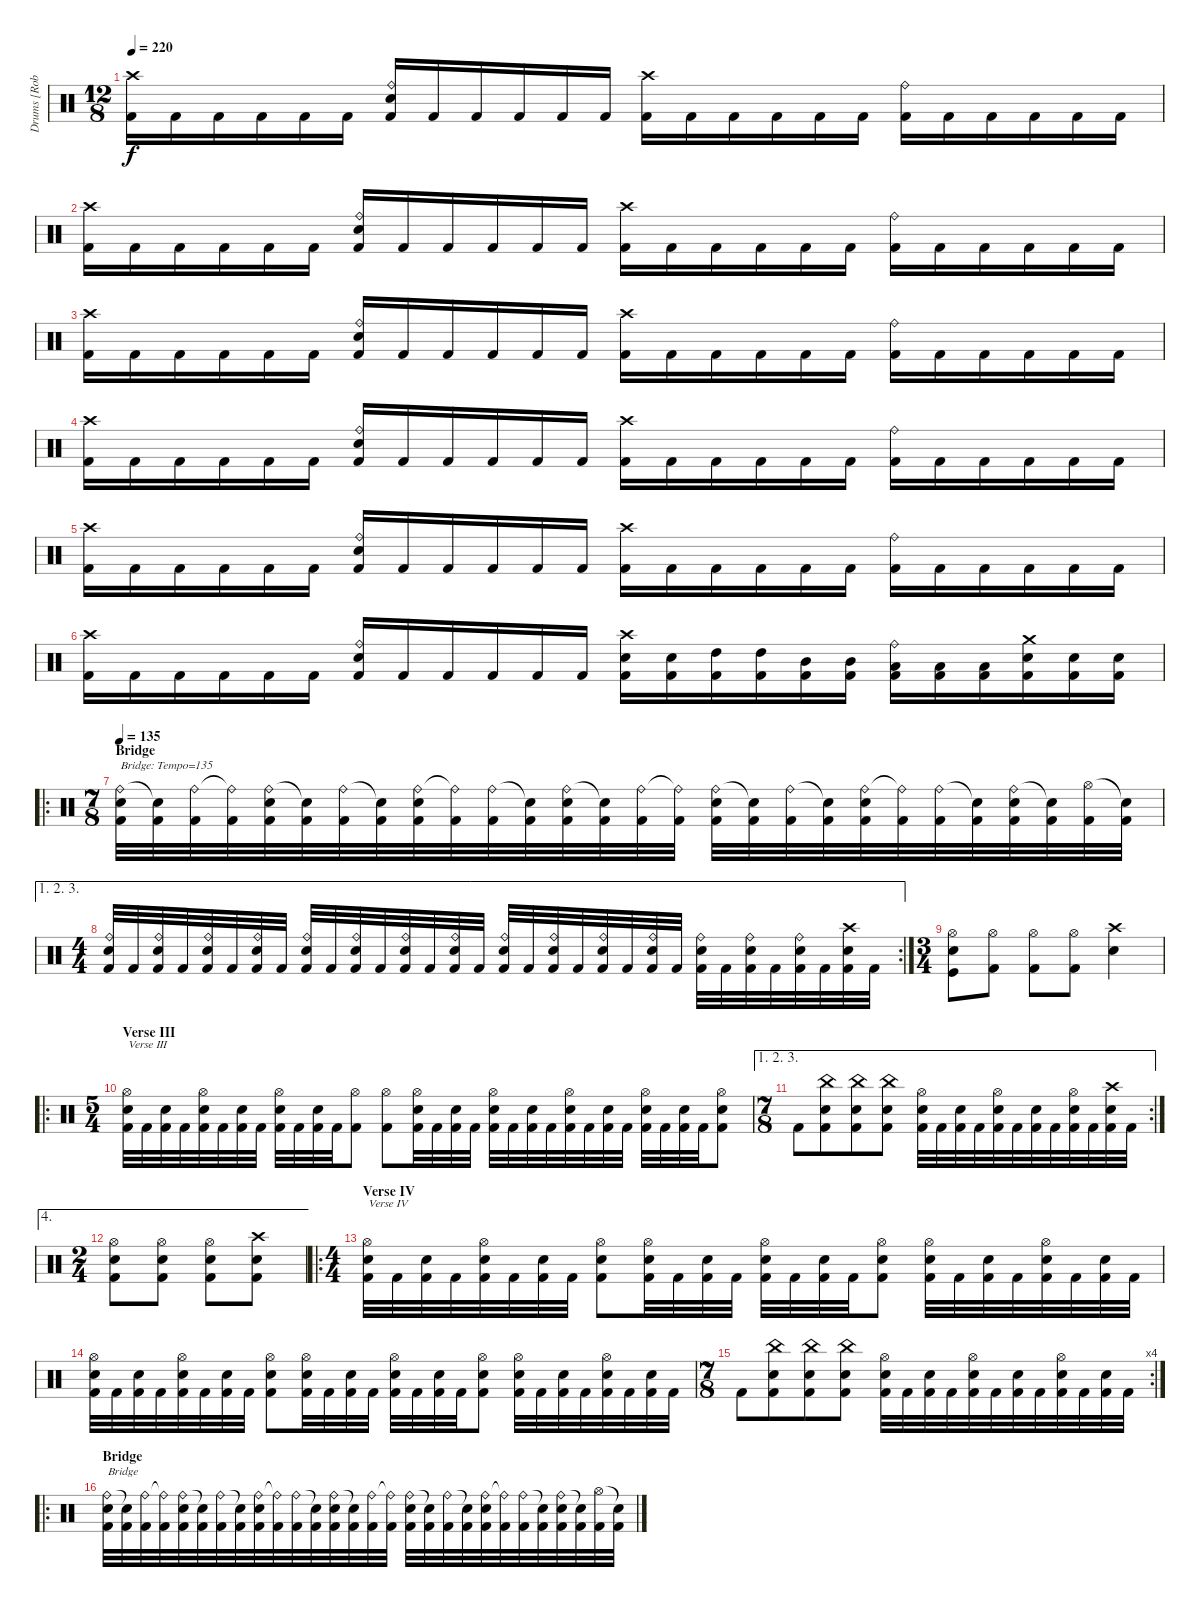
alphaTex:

\track ("Drums [Robert Patrick]" "Drums [Rob") {instrument percussion}
\staff {score}
\articulation defaults
\ts (12 8)
\tempo 220
\clef neutral
\ks c
("Crash high (hit)" "Kick (hit) 2").16{dy f} "Kick (hit) 2".16 "Kick (hit) 2".16 "Kick (hit) 2".16 "Kick (hit) 2".16 "Kick (hit) 2".16 ("Ride (bell)" "Electric Snare (hit)" "Kick (hit) 2").16 "Kick (hit) 2".16 "Kick (hit) 2".16 "Kick (hit) 2".16 "Kick (hit) 2".16 "Kick (hit) 2".16 ("Crash high (hit)" "Kick (hit) 2").16 "Kick (hit) 2".16 "Kick (hit) 2".16 "Kick (hit) 2".16 "Kick (hit) 2".16 "Kick (hit) 2".16 ("Ride (bell)" "Kick (hit) 2").16 "Kick (hit) 2".16 "Kick (hit) 2".16 "Kick (hit) 2".16 "Kick (hit) 2".16 "Kick (hit) 2".16 |
("Crash high (hit)" "Kick (hit) 2").16 "Kick (hit) 2".16 "Kick (hit) 2".16 "Kick (hit) 2".16 "Kick (hit) 2".16 "Kick (hit) 2".16 ("Ride (bell)" "Electric Snare (hit)" "Kick (hit) 2").16 "Kick (hit) 2".16 "Kick (hit) 2".16 "Kick (hit) 2".16 "Kick (hit) 2".16 "Kick (hit) 2".16 ("Crash high (hit)" "Kick (hit) 2").16 "Kick (hit) 2".16 "Kick (hit) 2".16 "Kick (hit) 2".16 "Kick (hit) 2".16 "Kick (hit) 2".16 ("Ride (bell)" "Kick (hit) 2").16 "Kick (hit) 2".16 "Kick (hit) 2".16 "Kick (hit) 2".16 "Kick (hit) 2".16 "Kick (hit) 2".16 |
("Crash high (hit)" "Kick (hit) 2").16 "Kick (hit) 2".16 "Kick (hit) 2".16 "Kick (hit) 2".16 "Kick (hit) 2".16 "Kick (hit) 2".16 ("Ride (bell)" "Electric Snare (hit)" "Kick (hit) 2").16 "Kick (hit) 2".16 "Kick (hit) 2".16 "Kick (hit) 2".16 "Kick (hit) 2".16 "Kick (hit) 2".16 ("Crash high (hit)" "Kick (hit) 2").16 "Kick (hit) 2".16 "Kick (hit) 2".16 "Kick (hit) 2".16 "Kick (hit) 2".16 "Kick (hit) 2".16 ("Ride (bell)" "Kick (hit) 2").16 "Kick (hit) 2".16 "Kick (hit) 2".16 "Kick (hit) 2".16 "Kick (hit) 2".16 "Kick (hit) 2".16 |
("Crash high (hit)" "Kick (hit) 2").16 "Kick (hit) 2".16 "Kick (hit) 2".16 "Kick (hit) 2".16 "Kick (hit) 2".16 "Kick (hit) 2".16 ("Ride (bell)" "Electric Snare (hit)" "Kick (hit) 2").16 "Kick (hit) 2".16 "Kick (hit) 2".16 "Kick (hit) 2".16 "Kick (hit) 2".16 "Kick (hit) 2".16 ("Crash high (hit)" "Kick (hit) 2").16 "Kick (hit) 2".16 "Kick (hit) 2".16 "Kick (hit) 2".16 "Kick (hit) 2".16 "Kick (hit) 2".16 ("Ride (bell)" "Kick (hit) 2").16 "Kick (hit) 2".16 "Kick (hit) 2".16 "Kick (hit) 2".16 "Kick (hit) 2".16 "Kick (hit) 2".16 |
("Crash high (hit)" "Kick (hit) 2").16 "Kick (hit) 2".16 "Kick (hit) 2".16 "Kick (hit) 2".16 "Kick (hit) 2".16 "Kick (hit) 2".16 ("Ride (bell)" "Electric Snare (hit)" "Kick (hit) 2").16 "Kick (hit) 2".16 "Kick (hit) 2".16 "Kick (hit) 2".16 "Kick (hit) 2".16 "Kick (hit) 2".16 ("Crash high (hit)" "Kick (hit) 2").16 "Kick (hit) 2".16 "Kick (hit) 2".16 "Kick (hit) 2".16 "Kick (hit) 2".16 "Kick (hit) 2".16 ("Ride (bell)" "Kick (hit) 2").16 "Kick (hit) 2".16 "Kick (hit) 2".16 "Kick (hit) 2".16 "Kick (hit) 2".16 "Kick (hit) 2".16 |
("Crash high (hit)" "Kick (hit) 2").16 "Kick (hit) 2".16 "Kick (hit) 2".16 "Kick (hit) 2".16 "Kick (hit) 2".16 "Kick (hit) 2".16 ("Ride (bell)" "Electric Snare (hit)" "Kick (hit) 2").16 "Kick (hit) 2".16 "Kick (hit) 2".16 "Kick (hit) 2".16 "Kick (hit) 2".16 "Kick (hit) 2".16 ("Crash high (hit)" "Electric Snare (hit)" "Kick (hit) 2").16 ("Electric Snare (hit)" "Kick (hit) 2").16 ("High Tom (hit)" "Kick (hit) 2").16 ("High Tom (hit)" "Kick (hit) 2").16 ("Mid Tom (hit)" "Kick (hit) 2").16 ("Mid Tom (hit)" "Kick (hit) 2").16 ("Ride (bell)" "Low Tom (hit)" "Kick (hit) 2").16 ("Low Tom (hit)" "Kick (hit) 2").16 ("Low Tom (hit)" "Kick (hit) 2").16 ("Crash medium (hit)" "Electric Snare (hit)" "Kick (hit) 2").16 ("Electric Snare (hit)" "Kick (hit) 2").16 ("Electric Snare (hit)" "Kick (hit) 2").16 |
\ro
\ts (7 8)
\section ("" "Bridge")
\tempo 135
("Ride (bell)" "Electric Snare (hit)" "Kick (hit) 2").32{txt "Bridge: Tempo=135"} ("Snare (hit)"{t} "Kick (hit) 2").32 ("Ride (bell)" "Kick (hit) 2").32 ("Ride (bell)"{t} "Kick (hit) 2").32 ("Ride (bell)" "Electric Snare (hit)" "Kick (hit) 2").32 ("Snare (hit)"{t} "Kick (hit) 2").32 ("Ride (bell)" "Kick (hit) 2").32 ("Snare (hit)"{t} "Kick (hit) 2").32 ("Ride (bell)" "Electric Snare (hit)" "Kick (hit) 2").32 ("Ride (bell)"{t} "Kick (hit) 2").32 ("Ride (bell)" "Kick (hit) 2").32 ("Snare (hit)"{t} "Kick (hit) 2").32 ("Ride (bell)" "Electric Snare (hit)" "Kick (hit) 2").32 ("Snare (hit)"{t} "Kick (hit) 2").32 ("Ride (bell)" "Kick (hit) 2").32 ("Ride (bell)"{t} "Kick (hit) 2").32 ("Ride (bell)" "Electric Snare (hit)" "Kick (hit) 2").32 ("Snare (hit)"{t} "Kick (hit) 2").32 ("Ride (bell)" "Kick (hit) 2").32 ("Snare (hit)"{t} "Kick (hit) 2").32 ("Ride (bell)" "Electric Snare (hit)" "Kick (hit) 2").32 ("Ride (bell)"{t} "Kick (hit) 2").32 ("Ride (bell)" "Kick (hit) 2").32 ("Snare (hit)"{t} "Kick (hit) 2").32 ("Ride (bell)" "Electric Snare (hit)" "Kick (hit) 2").32 ("Snare (hit)"{t} "Kick (hit) 2").32 ("Hi-Hat (open)" "Kick (hit) 2").32 ("Snare (hit)"{t} "Kick (hit) 2").32 |
\ae (1 2 3)
\rc 2
\ts (4 4)
("Ride (bell)" "Electric Snare (hit)" "Kick (hit) 2").32 "Kick (hit) 2".32 ("Ride (bell)" "Electric Snare (hit)" "Kick (hit) 2").32 "Kick (hit) 2".32 ("Ride (bell)" "Electric Snare (hit)" "Kick (hit) 2").32 "Kick (hit) 2".32 ("Ride (bell)" "Electric Snare (hit)" "Kick (hit) 2").32 "Kick (hit) 2".32 ("Ride (bell)" "Electric Snare (hit)" "Kick (hit) 2").32 "Kick (hit) 2".32 ("Ride (bell)" "Electric Snare (hit)" "Kick (hit) 2").32 "Kick (hit) 2".32 ("Ride (bell)" "Electric Snare (hit)" "Kick (hit) 2").32 "Kick (hit) 2".32 ("Ride (bell)" "Electric Snare (hit)" "Kick (hit) 2").32 "Kick (hit) 2".32 ("Ride (bell)" "Electric Snare (hit)" "Kick (hit) 2").32 "Kick (hit) 2".32 ("Ride (bell)" "Electric Snare (hit)" "Kick (hit) 2").32 "Kick (hit) 2".32 ("Ride (bell)" "Electric Snare (hit)" "Kick (hit) 2").32 "Kick (hit) 2".32 ("Ride (bell)" "Electric Snare (hit)" "Kick (hit) 2").32 "Kick (hit) 2".32 ("Ride (bell)" "Electric Snare (hit)" "Kick (hit) 2").32 "Kick (hit) 2".32 ("Ride (bell)" "Electric Snare (hit)" "Kick (hit) 2").32 "Kick (hit) 2".32 ("Ride (bell)" "Electric Snare (hit)" "Kick (hit) 2").32 "Kick (hit) 2".32 ("Crash high (hit)" "Electric Snare (hit)" "Kick (hit) 2").32 "Kick (hit) 2".32 |
\ts (3 4)
("Hi-Hat (open)" "Electric Snare (hit)" "Kick (hit)").8 ("Hi-Hat (open)" "Kick (hit) 2").8 ("Hi-Hat (open)" "Kick (hit) 2").8 ("Hi-Hat (open)" "Kick (hit) 2").8 ("Crash high (hit)" "Electric Snare (hit)").4 |
\ro
\ts (5 4)
\section ("" "Verse III")
("Hi-Hat (open)" "Electric Snare (hit)" "Kick (hit) 2").32{txt "Verse III"} "Kick (hit) 2".32 ("Electric Snare (hit)" "Kick (hit) 2").32 "Kick (hit) 2".32 ("Hi-Hat (open)" "Electric Snare (hit)" "Kick (hit) 2").32 "Kick (hit) 2".32 ("Electric Snare (hit)" "Kick (hit) 2").32 "Kick (hit) 2".32 ("Hi-Hat (open)" "Electric Snare (hit)" "Kick (hit) 2").32 "Kick (hit) 2".32 ("Electric Snare (hit)" "Kick (hit) 2").32 "Kick (hit) 2".32 ("Hi-Hat (open)" "Kick (hit) 2").8 ("Hi-Hat (open)" "Kick (hit) 2").8 ("Hi-Hat (open)" "Electric Snare (hit)" "Kick (hit) 2").32 "Kick (hit) 2".32 ("Electric Snare (hit)" "Kick (hit) 2").32 "Kick (hit) 2".32 ("Hi-Hat (open)" "Electric Snare (hit)" "Kick (hit) 2").32 "Kick (hit) 2".32 ("Electric Snare (hit)" "Kick (hit) 2").32 "Kick (hit) 2".32 ("Hi-Hat (open)" "Electric Snare (hit)" "Kick (hit) 2").32 "Kick (hit) 2".32 ("Electric Snare (hit)" "Kick (hit) 2").32 "Kick (hit) 2".32 ("Hi-Hat (open)" "Electric Snare (hit)" "Kick (hit) 2").32 "Kick (hit) 2".32 ("Electric Snare (hit)" "Kick (hit) 2").32 "Kick (hit) 2".32 ("Hi-Hat (open)" "Electric Snare (hit)" "Kick (hit) 2").8 |
\ae (1 2 3)
\rc 2
\ts (7 8)
"Kick (hit) 2".8 ("China (hit)" "Electric Snare (hit)" "Kick (hit) 2").8 ("China (hit)" "Electric Snare (hit)" "Kick (hit) 2").8 ("China (hit)" "Electric Snare (hit)" "Kick (hit) 2").8 ("Hi-Hat (open)" "Electric Snare (hit)" "Kick (hit) 2").32 "Kick (hit) 2".32 ("Electric Snare (hit)" "Kick (hit) 2").32 "Kick (hit) 2".32 ("Hi-Hat (open)" "Electric Snare (hit)" "Kick (hit) 2").32 "Kick (hit) 2".32 ("Electric Snare (hit)" "Kick (hit) 2").32 "Kick (hit) 2".32 ("Hi-Hat (open)" "Electric Snare (hit)" "Kick (hit) 2").32 "Kick (hit) 2".32 ("Crash high (hit)" "Electric Snare (hit)" "Kick (hit) 2").32 "Kick (hit) 2".32 |
\ae 4
\ts (2 4)
("Hi-Hat (open)" "Electric Snare (hit)" "Kick (hit) 2").8 ("Hi-Hat (open)" "Electric Snare (hit)" "Kick (hit) 2").8 ("Hi-Hat (open)" "Electric Snare (hit)" "Kick (hit) 2").8 ("Crash high (hit)" "Electric Snare (hit)" "Kick (hit) 2").8 |
\ro
\ts (4 4)
\section ("" "Verse IV")
("Hi-Hat (open)" "Electric Snare (hit)" "Kick (hit) 2").32{txt "Verse IV"} "Kick (hit) 2".32 ("Electric Snare (hit)" "Kick (hit) 2").32 "Kick (hit) 2".32 ("Hi-Hat (open)" "Electric Snare (hit)" "Kick (hit) 2").32 "Kick (hit) 2".32 ("Electric Snare (hit)" "Kick (hit) 2").32 "Kick (hit) 2".32 ("Hi-Hat (open)" "Electric Snare (hit)" "Kick (hit) 2").8 ("Hi-Hat (open)" "Electric Snare (hit)" "Kick (hit) 2").32 "Kick (hit) 2".32 ("Electric Snare (hit)" "Kick (hit) 2").32 "Kick (hit) 2".32 ("Hi-Hat (open)" "Electric Snare (hit)" "Kick (hit) 2").32 "Kick (hit) 2".32 ("Electric Snare (hit)" "Kick (hit) 2").32 "Kick (hit) 2".32 ("Hi-Hat (open)" "Electric Snare (hit)" "Kick (hit) 2").8 ("Hi-Hat (open)" "Electric Snare (hit)" "Kick (hit) 2").32 "Kick (hit) 2".32 ("Electric Snare (hit)" "Kick (hit) 2").32 "Kick (hit) 2".32 ("Hi-Hat (open)" "Electric Snare (hit)" "Kick (hit) 2").32 "Kick (hit) 2".32 ("Electric Snare (hit)" "Kick (hit) 2").32 "Kick (hit) 2".32 |
("Hi-Hat (open)" "Electric Snare (hit)" "Kick (hit) 2").32 "Kick (hit) 2".32 ("Electric Snare (hit)" "Kick (hit) 2").32 "Kick (hit) 2".32 ("Hi-Hat (open)" "Electric Snare (hit)" "Kick (hit) 2").32 "Kick (hit) 2".32 ("Electric Snare (hit)" "Kick (hit) 2").32 "Kick (hit) 2".32 ("Hi-Hat (open)" "Electric Snare (hit)" "Kick (hit) 2").8 ("Hi-Hat (open)" "Electric Snare (hit)" "Kick (hit) 2").32 "Kick (hit) 2".32 ("Electric Snare (hit)" "Kick (hit) 2").32 "Kick (hit) 2".32 ("Hi-Hat (open)" "Electric Snare (hit)" "Kick (hit) 2").32 "Kick (hit) 2".32 ("Electric Snare (hit)" "Kick (hit) 2").32 "Kick (hit) 2".32 ("Hi-Hat (open)" "Electric Snare (hit)" "Kick (hit) 2").8 ("Hi-Hat (open)" "Electric Snare (hit)" "Kick (hit) 2").32 "Kick (hit) 2".32 ("Electric Snare (hit)" "Kick (hit) 2").32 "Kick (hit) 2".32 ("Hi-Hat (open)" "Electric Snare (hit)" "Kick (hit) 2").32 "Kick (hit) 2".32 ("Electric Snare (hit)" "Kick (hit) 2").32 "Kick (hit) 2".32 |
\rc 4
\ts (7 8)
"Kick (hit) 2".8 ("China (hit)" "Electric Snare (hit)" "Kick (hit) 2").8 ("China (hit)" "Electric Snare (hit)" "Kick (hit) 2").8 ("China (hit)" "Electric Snare (hit)" "Kick (hit) 2").8 ("Hi-Hat (open)" "Electric Snare (hit)" "Kick (hit) 2").32 "Kick (hit) 2".32 ("Electric Snare (hit)" "Kick (hit) 2").32 "Kick (hit) 2".32 ("Hi-Hat (open)" "Electric Snare (hit)" "Kick (hit) 2").32 "Kick (hit) 2".32 ("Electric Snare (hit)" "Kick (hit) 2").32 "Kick (hit) 2".32 ("Hi-Hat (open)" "Electric Snare (hit)" "Kick (hit) 2").32 "Kick (hit) 2".32 ("Electric Snare (hit)" "Kick (hit) 2").32 "Kick (hit) 2".32 |
\ro
\section ("" "Bridge")
("Ride (bell)" "Electric Snare (hit)" "Kick (hit) 2").32{txt "Bridge"} ("Snare (hit)"{t} "Kick (hit) 2").32 ("Ride (bell)" "Kick (hit) 2").32 ("Ride (bell)"{t} "Kick (hit) 2").32 ("Ride (bell)" "Electric Snare (hit)" "Kick (hit) 2").32 ("Snare (hit)"{t} "Kick (hit) 2").32 ("Ride (bell)" "Kick (hit) 2").32 ("Snare (hit)"{t} "Kick (hit) 2").32 ("Ride (bell)" "Electric Snare (hit)" "Kick (hit) 2").32 ("Ride (bell)"{t} "Kick (hit) 2").32 ("Ride (bell)" "Kick (hit) 2").32 ("Snare (hit)"{t} "Kick (hit) 2").32 ("Ride (bell)" "Electric Snare (hit)" "Kick (hit) 2").32 ("Snare (hit)"{t} "Kick (hit) 2").32 ("Ride (bell)" "Kick (hit) 2").32 ("Ride (bell)"{t} "Kick (hit) 2").32 ("Ride (bell)" "Electric Snare (hit)" "Kick (hit) 2").32 ("Snare (hit)"{t} "Kick (hit) 2").32 ("Ride (bell)" "Kick (hit) 2").32 ("Snare (hit)"{t} "Kick (hit) 2").32 ("Ride (bell)" "Electric Snare (hit)" "Kick (hit) 2").32 ("Ride (bell)"{t} "Kick (hit) 2").32 ("Ride (bell)" "Kick (hit) 2").32 ("Snare (hit)"{t} "Kick (hit) 2").32 ("Ride (bell)" "Electric Snare (hit)" "Kick (hit) 2").32 ("Snare (hit)"{t} "Kick (hit) 2").32 ("Hi-Hat (open)" "Kick (hit) 2").32 ("Snare (hit)"{t} "Kick (hit) 2").32
